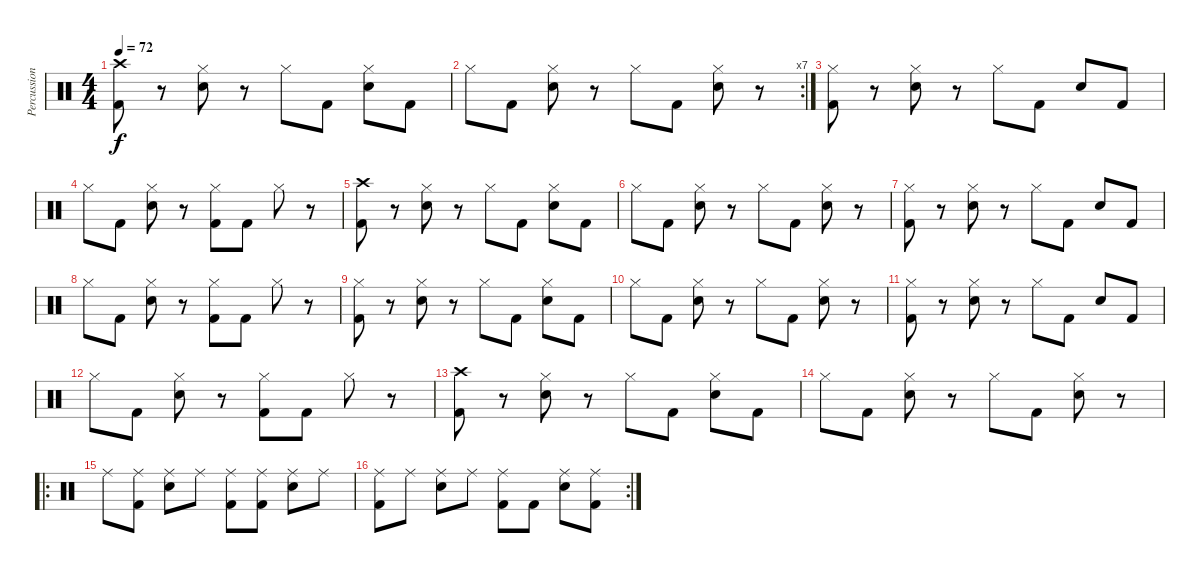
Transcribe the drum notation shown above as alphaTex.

\track ("Percussion" "Percussion") {instrument percussion}
\staff {score}
\articulation defaults
\ts (4 4)
\tempo 72
\clef neutral
\ks c
("Crash high (hit)" "Kick (hit) 2").8{dy f} r.8 ("Hi-Hat (closed)" "Snare (hit) 2").8 r.8 "Hi-Hat (closed)".8 "Kick (hit) 2".8 ("Hi-Hat (closed)" "Snare (hit) 2").8 "Kick (hit) 2".8 |
\rc 7 "Hi-Hat (closed)".8 "Kick (hit) 2".8
("Hi-Hat (closed)" "Snare (hit) 2").8 r.8 "Hi-Hat (closed)".8 "Kick (hit) 2".8 ("Hi-Hat (closed)" "Snare (hit) 2").8 r.8 |
("Hi-Hat (closed)" "Kick (hit) 2").8 r.8 ("Hi-Hat (closed)" "Snare (hit) 2").8 r.8 "Hi-Hat (closed)".8 "Kick (hit) 2".8 "Snare (hit) 2".8 "Kick (hit) 2".8 |
"Hi-Hat (closed)".8 "Kick (hit) 2".8 ("Hi-Hat (closed)" "Snare (hit) 2").8 r.8 ("Hi-Hat (closed)" "Kick (hit) 2").8 "Kick (hit) 2".8 "Hi-Hat (closed)".8 r.8 |
("Kick (hit) 2" "Crash high (hit)").8 r.8 ("Snare (hit) 2" "Hi-Hat (closed)").8 r.8 "Hi-Hat (closed)".8 "Kick (hit) 2".8 ("Snare (hit) 2" "Hi-Hat (closed)").8 "Kick (hit) 2".8 |
"Hi-Hat (closed)".8 "Kick (hit) 2".8 ("Snare (hit) 2" "Hi-Hat (closed)").8 r.8 "Hi-Hat (closed)".8 "Kick (hit) 2".8 ("Snare (hit) 2" "Hi-Hat (closed)").8 r.8 |
("Kick (hit) 2" "Hi-Hat (closed)").8 r.8 ("Snare (hit) 2" "Hi-Hat (closed)").8 r.8 "Hi-Hat (closed)".8 "Kick (hit) 2".8 "Snare (hit) 2".8 "Kick (hit) 2".8 |
"Hi-Hat (closed)".8 "Kick (hit) 2".8 ("Snare (hit) 2" "Hi-Hat (closed)").8 r.8 ("Kick (hit) 2" "Hi-Hat (closed)").8 "Kick (hit) 2".8 "Hi-Hat (closed)".8 r.8 |
("Hi-Hat (closed)" "Kick (hit) 2").8 r.8 ("Hi-Hat (closed)" "Snare (hit) 2").8 r.8 "Hi-Hat (closed)".8 "Kick (hit) 2".8 ("Hi-Hat (closed)" "Snare (hit) 2").8 "Kick (hit) 2".8 |
"Hi-Hat (closed)".8 "Kick (hit) 2".8 ("Hi-Hat (closed)" "Snare (hit) 2").8 r.8 "Hi-Hat (closed)".8 "Kick (hit) 2".8 ("Hi-Hat (closed)" "Snare (hit) 2").8 r.8 |
("Hi-Hat (closed)" "Kick (hit) 2").8 r.8 ("Hi-Hat (closed)" "Snare (hit) 2").8 r.8 "Hi-Hat (closed)".8 "Kick (hit) 2".8 "Snare (hit) 2".8 "Kick (hit) 2".8 |
"Hi-Hat (closed)".8 "Kick (hit) 2".8 ("Hi-Hat (closed)" "Snare (hit) 2").8 r.8 ("Hi-Hat (closed)" "Kick (hit) 2").8 "Kick (hit) 2".8 "Hi-Hat (closed)".8 r.8 |
("Crash high (hit)" "Kick (hit) 2").8 r.8 ("Hi-Hat (closed)" "Snare (hit) 2").8 r.8 "Hi-Hat (closed)".8 "Kick (hit) 2".8 ("Hi-Hat (closed)" "Snare (hit) 2").8 "Kick (hit) 2".8 |
"Hi-Hat (closed)".8 "Kick (hit) 2".8 ("Hi-Hat (closed)" "Snare (hit) 2").8 r.8 "Hi-Hat (closed)".8 "Kick (hit) 2".8 ("Hi-Hat (closed)" "Snare (hit) 2").8 r.8 |
\ro "Ride (middle)".8
("Ride (middle)" "Kick (hit) 2").8 ("Ride (middle)" "Snare (hit) 2").8 "Ride (middle)".8 ("Ride (middle)" "Kick (hit) 2").8 ("Ride (middle)" "Kick (hit) 2").8 ("Ride (middle)" "Snare (hit) 2").8 "Ride (middle)".8 |
\rc 2
("Ride (middle)" "Kick (hit) 2").8 "Ride (middle)".8 ("Ride (middle)" "Snare (hit) 2").8 "Ride (middle)".8 ("Ride (middle)" "Kick (hit) 2").8 "Kick (hit) 2".8 ("Ride (middle)" "Snare (hit) 2").8 ("Ride (middle)" "Kick (hit) 2").8
